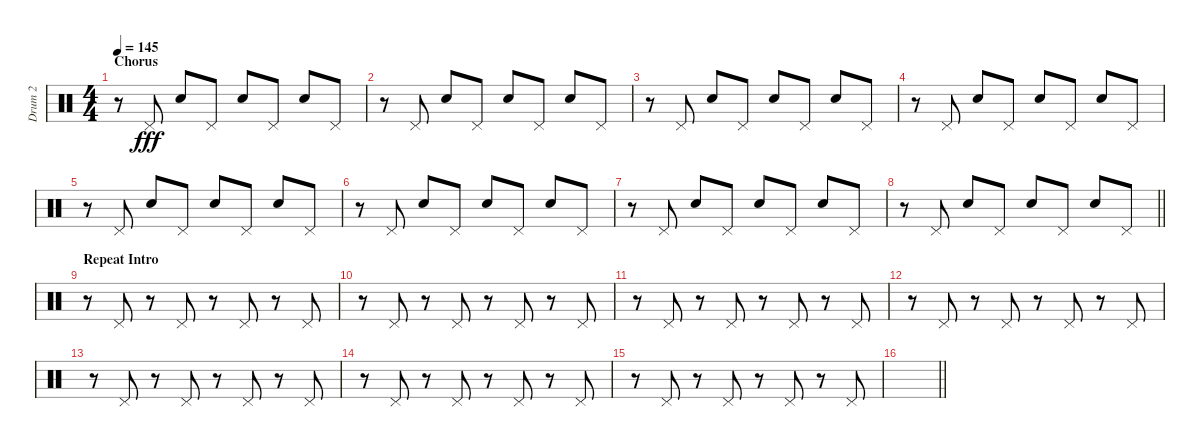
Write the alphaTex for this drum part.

\track ("Drum 2" "Drum 2") {instrument percussion}
\staff {score}
\articulation defaults
\ts (4 4)
\section ("" "Chorus")
\tempo 145
\clef neutral
\ks c
r.8{dy fff} "Pedal Hi-Hat (hit)".8 "Snare (hit) 2".8 "Pedal Hi-Hat (hit)".8 "Snare (hit) 2".8 "Pedal Hi-Hat (hit)".8 "Snare (hit) 2".8 "Pedal Hi-Hat (hit)".8 |
r.8 "Pedal Hi-Hat (hit)".8 "Snare (hit) 2".8 "Pedal Hi-Hat (hit)".8 "Snare (hit) 2".8 "Pedal Hi-Hat (hit)".8 "Snare (hit) 2".8 "Pedal Hi-Hat (hit)".8 |
r.8 "Pedal Hi-Hat (hit)".8 "Snare (hit) 2".8 "Pedal Hi-Hat (hit)".8 "Snare (hit) 2".8 "Pedal Hi-Hat (hit)".8 "Snare (hit) 2".8 "Pedal Hi-Hat (hit)".8 |
r.8 "Pedal Hi-Hat (hit)".8 "Snare (hit) 2".8 "Pedal Hi-Hat (hit)".8 "Snare (hit) 2".8 "Pedal Hi-Hat (hit)".8 "Snare (hit) 2".8 "Pedal Hi-Hat (hit)".8 |
r.8 "Pedal Hi-Hat (hit)".8 "Snare (hit) 2".8 "Pedal Hi-Hat (hit)".8 "Snare (hit) 2".8 "Pedal Hi-Hat (hit)".8 "Snare (hit) 2".8 "Pedal Hi-Hat (hit)".8 |
r.8 "Pedal Hi-Hat (hit)".8 "Snare (hit) 2".8 "Pedal Hi-Hat (hit)".8 "Snare (hit) 2".8 "Pedal Hi-Hat (hit)".8 "Snare (hit) 2".8 "Pedal Hi-Hat (hit)".8 |
r.8 "Pedal Hi-Hat (hit)".8 "Snare (hit) 2".8 "Pedal Hi-Hat (hit)".8 "Snare (hit) 2".8 "Pedal Hi-Hat (hit)".8 "Snare (hit) 2".8 "Pedal Hi-Hat (hit)".8 |
\barLineRight lightlight
r.8 "Pedal Hi-Hat (hit)".8 "Snare (hit) 2".8 "Pedal Hi-Hat (hit)".8 "Snare (hit) 2".8 "Pedal Hi-Hat (hit)".8 "Snare (hit) 2".8 "Pedal Hi-Hat (hit)".8 |
\section ("" "Repeat Intro")
r.8 "Pedal Hi-Hat (hit)".8 r.8 "Pedal Hi-Hat (hit)".8 r.8 "Pedal Hi-Hat (hit)".8 r.8 "Pedal Hi-Hat (hit)".8 |
r.8 "Pedal Hi-Hat (hit)".8 r.8 "Pedal Hi-Hat (hit)".8 r.8 "Pedal Hi-Hat (hit)".8 r.8 "Pedal Hi-Hat (hit)".8 |
r.8 "Pedal Hi-Hat (hit)".8 r.8 "Pedal Hi-Hat (hit)".8 r.8 "Pedal Hi-Hat (hit)".8 r.8 "Pedal Hi-Hat (hit)".8 |
r.8 "Pedal Hi-Hat (hit)".8 r.8 "Pedal Hi-Hat (hit)".8 r.8 "Pedal Hi-Hat (hit)".8 r.8 "Pedal Hi-Hat (hit)".8 |
r.8 "Pedal Hi-Hat (hit)".8 r.8 "Pedal Hi-Hat (hit)".8 r.8 "Pedal Hi-Hat (hit)".8 r.8 "Pedal Hi-Hat (hit)".8 |
r.8 "Pedal Hi-Hat (hit)".8 r.8 "Pedal Hi-Hat (hit)".8 r.8 "Pedal Hi-Hat (hit)".8 r.8 "Pedal Hi-Hat (hit)".8 |
r.8 "Pedal Hi-Hat (hit)".8 r.8 "Pedal Hi-Hat (hit)".8 r.8 "Pedal Hi-Hat (hit)".8 r.8 "Pedal Hi-Hat (hit)".8 |
\barLineRight lightlight
